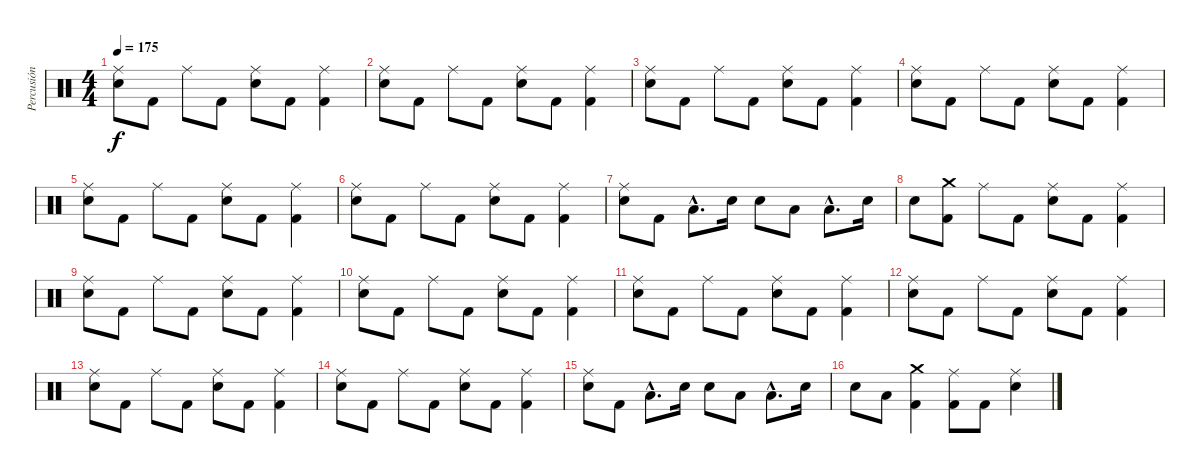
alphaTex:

\track ("Percusión" "Percusión") {instrument percussion}
\staff {score}
\articulation defaults
\ts (4 4)
\tempo 175
\clef neutral
\ks c
("Snare (hit) 2" "Ride (middle)").8{dy f} "Kick (hit) 2".8 "Ride (middle)".8 "Kick (hit) 2".8 ("Snare (hit) 2" "Ride (middle)").8 "Kick (hit) 2".8 ("Ride (middle)" "Kick (hit) 2").4 |
("Snare (hit) 2" "Ride (middle)").8 "Kick (hit) 2".8 "Ride (middle)".8 "Kick (hit) 2".8 ("Snare (hit) 2" "Ride (middle)").8 "Kick (hit) 2".8 ("Ride (middle)" "Kick (hit) 2").4 |
("Snare (hit) 2" "Ride (middle)").8 "Kick (hit) 2".8 "Ride (middle)".8 "Kick (hit) 2".8 ("Snare (hit) 2" "Ride (middle)").8 "Kick (hit) 2".8 ("Ride (middle)" "Kick (hit) 2").4 |
("Snare (hit) 2" "Ride (middle)").8 "Kick (hit) 2".8 "Ride (middle)".8 "Kick (hit) 2".8 ("Snare (hit) 2" "Ride (middle)").8 "Kick (hit) 2".8 ("Ride (middle)" "Kick (hit) 2").4 |
("Snare (hit) 2" "Ride (middle)").8 "Kick (hit) 2".8 "Ride (middle)".8 "Kick (hit) 2".8 ("Snare (hit) 2" "Ride (middle)").8 "Kick (hit) 2".8 ("Ride (middle)" "Kick (hit) 2").4 |
("Snare (hit) 2" "Ride (middle)").8 "Kick (hit) 2".8 "Ride (middle)".8 "Kick (hit) 2".8 ("Snare (hit) 2" "Ride (middle)").8 "Kick (hit) 2".8 ("Ride (middle)" "Kick (hit) 2").4 |
("Snare (hit) 2" "Ride (middle)").8 "Kick (hit) 2".8 "Low Tom (hit)"{hac}.8{d} "Snare (hit) 2".16 "Snare (hit) 2".8 "Low Tom (hit)".8 "Low Tom (hit)"{hac}.8{d} "Snare (hit) 2".16 |
"Snare (hit) 2".8 ("Crash medium (hit)" "Kick (hit) 2").8 "Ride (middle)".8 "Kick (hit) 2".8 ("Snare (hit) 2" "Ride (middle)").8 "Kick (hit) 2".8 ("Ride (middle)" "Kick (hit) 2").4 |
("Snare (hit) 2" "Ride (middle)").8 "Kick (hit) 2".8 "Ride (middle)".8 "Kick (hit) 2".8 ("Snare (hit) 2" "Ride (middle)").8 "Kick (hit) 2".8 ("Ride (middle)" "Kick (hit) 2").4 |
("Snare (hit) 2" "Ride (middle)").8 "Kick (hit) 2".8 "Ride (middle)".8 "Kick (hit) 2".8 ("Snare (hit) 2" "Ride (middle)").8 "Kick (hit) 2".8 ("Ride (middle)" "Kick (hit) 2").4 |
("Snare (hit) 2" "Ride (middle)").8 "Kick (hit) 2".8 "Ride (middle)".8 "Kick (hit) 2".8 ("Snare (hit) 2" "Ride (middle)").8 "Kick (hit) 2".8 ("Ride (middle)" "Kick (hit) 2").4 |
("Snare (hit) 2" "Ride (middle)").8 "Kick (hit) 2".8 "Ride (middle)".8 "Kick (hit) 2".8 ("Snare (hit) 2" "Ride (middle)").8 "Kick (hit) 2".8 ("Ride (middle)" "Kick (hit) 2").4 |
("Snare (hit) 2" "Ride (middle)").8 "Kick (hit) 2".8 "Ride (middle)".8 "Kick (hit) 2".8 ("Snare (hit) 2" "Ride (middle)").8 "Kick (hit) 2".8 ("Ride (middle)" "Kick (hit) 2").4 |
("Snare (hit) 2" "Ride (middle)").8 "Kick (hit) 2".8 "Ride (middle)".8 "Kick (hit) 2".8 ("Snare (hit) 2" "Ride (middle)").8 "Kick (hit) 2".8 ("Ride (middle)" "Kick (hit) 2").4 |
("Snare (hit) 2" "Ride (middle)").8 "Kick (hit) 2".8 "Low Tom (hit)"{hac}.8{d} "Snare (hit) 2".16 "Snare (hit) 2".8 "Low Tom (hit)".8 "Low Tom (hit)"{hac}.8{d} "Snare (hit) 2".16 |
"Snare (hit) 2".8 "Low Tom (hit)".8 ("Crash medium (hit)" "Kick (hit) 2").4 ("Ride (middle)" "Kick (hit) 2").8 "Kick (hit) 2".8 ("Snare (hit) 2" "Ride (middle)").4
